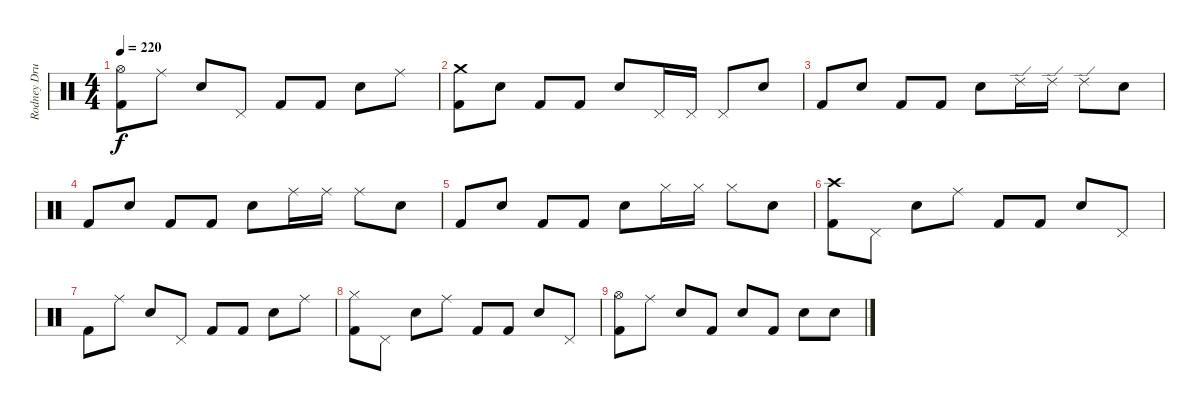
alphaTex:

\track ("Rodney Drums" "Rodney Dru") {instrument percussion}
\staff {score}
\articulation defaults
\ts (4 4)
\tempo 220
\clef neutral
\ks c
("Hi-Hat (open)" "Kick (hit) 2").8{dy f} "Ride (middle)".8 "Electric Snare (hit)".8 "Pedal Hi-Hat (hit)".8 "Kick (hit) 2".8 "Kick (hit) 2".8 "Electric Snare (hit)".8 "Ride (middle)".8 |
("Crash medium (hit)" "Kick (hit) 2").8 "Electric Snare (hit)".8 "Kick (hit) 2".8 "Kick (hit) 2".8 "Electric Snare (hit)".8 "Pedal Hi-Hat (hit)".16 "Pedal Hi-Hat (hit)".16 "Pedal Hi-Hat (hit)".8 "Electric Snare (hit)".8 |
"Kick (hit) 2".8 "Electric Snare (hit)".8 "Kick (hit) 2".8 "Kick (hit) 2".8 "Electric Snare (hit)".8 "Ride (edge) 2".16 "Ride (edge) 2".16 "Ride (edge) 2".8 "Electric Snare (hit)".8 |
"Kick (hit) 2".8 "Electric Snare (hit)".8 "Kick (hit) 2".8 "Kick (hit) 2".8 "Electric Snare (hit)".8 "Ride (middle)".16 "Ride (middle)".16 "Ride (middle)".8 "Electric Snare (hit)".8 |
"Kick (hit) 2".8 "Electric Snare (hit)".8 "Kick (hit) 2".8 "Kick (hit) 2".8 "Electric Snare (hit)".8 "Hi-Hat (closed)".16 "Hi-Hat (closed)".16 "Hi-Hat (closed)".8 "Electric Snare (hit)".8 |
("Crash high (hit)" "Kick (hit) 2").8 "Pedal Hi-Hat (hit)".8 "Electric Snare (hit)".8 "Ride (middle)".8 "Kick (hit) 2".8 "Kick (hit) 2".8 "Electric Snare (hit)".8 "Pedal Hi-Hat (hit)".8 |
"Kick (hit) 2".8 "Ride (middle)".8 "Electric Snare (hit)".8 "Pedal Hi-Hat (hit)".8 "Kick (hit) 2".8 "Kick (hit) 2".8 "Electric Snare (hit)".8 "Ride (middle)".8 |
("Hi-Hat (closed)" "Kick (hit) 2").8 "Pedal Hi-Hat (hit)".8 "Electric Snare (hit)".8 "Ride (middle)".8 "Kick (hit) 2".8 "Kick (hit) 2".8 "Electric Snare (hit)".8 "Pedal Hi-Hat (hit)".8 |
("Hi-Hat (open)" "Kick (hit) 2").8 "Ride (middle)".8 "Electric Snare (hit)".8 "Kick (hit) 2".8 "Electric Snare (hit)".8 "Kick (hit) 2".8 "Electric Snare (hit)".8 "Electric Snare (hit)".8
